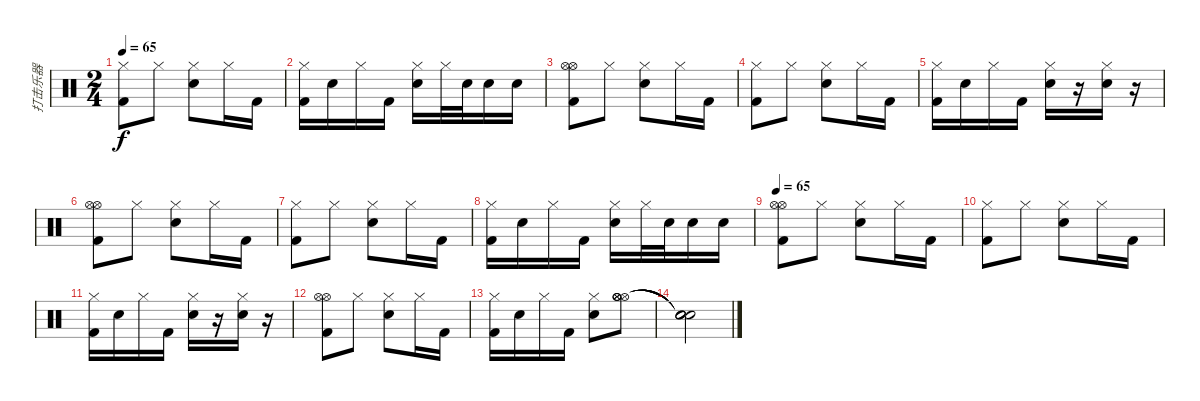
\track ("打击乐器" "打击乐器") {instrument percussion}
\staff {score}
\articulation defaults
\ts (2 4)
\tempo 65
\clef neutral
\ks c
("Hi-Hat (closed)" "Kick (hit) 2").8{dy f} "Hi-Hat (closed)".8 ("Hi-Hat (closed)" "Snare (hit) 2").8 "Hi-Hat (closed)".16 "Kick (hit) 2".16 |
("Hi-Hat (closed)" "Kick (hit) 2").16 "Snare (hit) 2".16 "Hi-Hat (closed)".16 "Kick (hit) 2".16 ("Hi-Hat (closed)" "Snare (hit) 2").16 "Hi-Hat (closed)".32 "Snare (hit) 2".32 "Snare (hit) 2".16 "Snare (hit) 2".16 |
("Hi-Hat (open)" "Hi-Hat (open)" "Kick (hit) 2").8 "Hi-Hat (closed)".8 ("Hi-Hat (closed)" "Snare (hit) 2").8 "Hi-Hat (closed)".16 "Kick (hit) 2".16 |
("Hi-Hat (closed)" "Kick (hit) 2").8 "Hi-Hat (closed)".8 ("Hi-Hat (closed)" "Snare (hit) 2").8 "Hi-Hat (closed)".16 "Kick (hit) 2".16 |
("Hi-Hat (closed)" "Kick (hit) 2").16 "Snare (hit) 2".16 "Hi-Hat (closed)".16 "Kick (hit) 2".16 ("Hi-Hat (closed)" "Snare (hit) 2").16 r.16 ("Hi-Hat (closed)" "Snare (hit) 2").16 r.16 |
("Hi-Hat (open)" "Hi-Hat (open)" "Kick (hit) 2").8 "Hi-Hat (closed)".8 ("Hi-Hat (closed)" "Snare (hit) 2").8 "Hi-Hat (closed)".16 "Kick (hit) 2".16 |
("Hi-Hat (closed)" "Kick (hit) 2").8 "Hi-Hat (closed)".8 ("Hi-Hat (closed)" "Snare (hit) 2").8 "Hi-Hat (closed)".16 "Kick (hit) 2".16 |
("Hi-Hat (closed)" "Kick (hit) 2").16 "Snare (hit) 2".16 "Hi-Hat (closed)".16 "Kick (hit) 2".16 ("Hi-Hat (closed)" "Snare (hit) 2").16 "Hi-Hat (closed)".32 "Snare (hit) 2".32 "Snare (hit) 2".16 "Snare (hit) 2".16 |
\tempo 65
("Hi-Hat (open)" "Hi-Hat (open)" "Kick (hit) 2").8 "Hi-Hat (closed)".8 ("Hi-Hat (closed)" "Snare (hit) 2").8 "Hi-Hat (closed)".16 "Kick (hit) 2".16 |
("Hi-Hat (closed)" "Kick (hit) 2").8 "Hi-Hat (closed)".8 ("Hi-Hat (closed)" "Snare (hit) 2").8 "Hi-Hat (closed)".16 "Kick (hit) 2".16 |
("Hi-Hat (closed)" "Kick (hit) 2").16 "Snare (hit) 2".16 "Hi-Hat (closed)".16 "Kick (hit) 2".16 ("Hi-Hat (closed)" "Snare (hit) 2").16 r.16 ("Hi-Hat (closed)" "Snare (hit) 2").16 r.16 |
("Hi-Hat (open)" "Hi-Hat (open)" "Kick (hit) 2").8 "Hi-Hat (closed)".8 ("Hi-Hat (closed)" "Snare (hit) 2").8 "Hi-Hat (closed)".16 "Kick (hit) 2".16 |
("Hi-Hat (closed)" "Kick (hit) 2").16 "Snare (hit) 2".16 "Hi-Hat (closed)".16 "Kick (hit) 2".16 ("Hi-Hat (closed)" "Snare (hit) 2").8 ("Hi-Hat (open)" "Hi-Hat (open)" "Hi-Hat (open)" "Hi-Hat (open)").8 |
("Snare (hit)"{t} "Snare (hit)"{t} "Snare (hit)"{t} "Snare (hit)"{t}).2
